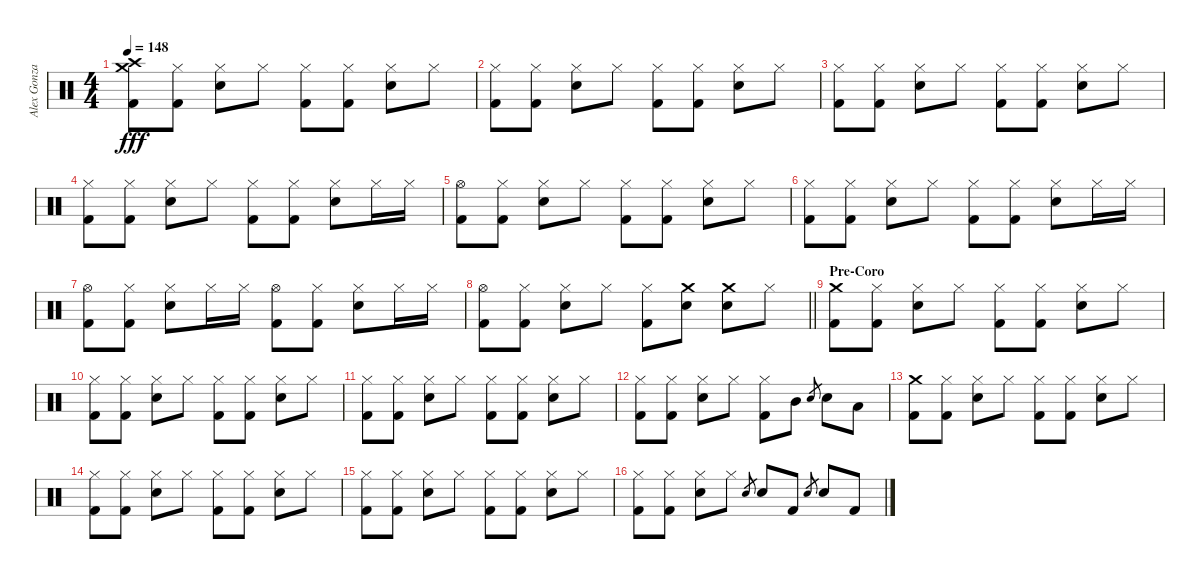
\track ("Alex Gonzalez" "Alex Gonza") {instrument percussion}
\staff {score}
\articulation defaults
\ts (4 4)
\tempo 148
\clef neutral
\ks c
("Crash medium (hit)" "Crash high (hit)" "Kick (hit) 2").8{dy fff} ("Hi-Hat (closed)" "Kick (hit) 2").8 ("Hi-Hat (closed)" "Snare (hit) 2").8 "Hi-Hat (closed)".8 ("Hi-Hat (closed)" "Kick (hit) 2").8 ("Hi-Hat (closed)" "Kick (hit) 2").8 ("Hi-Hat (closed)" "Snare (hit) 2").8 "Hi-Hat (closed)".8 |
("Hi-Hat (closed)" "Kick (hit) 2").8 ("Hi-Hat (closed)" "Kick (hit) 2").8 ("Hi-Hat (closed)" "Snare (hit) 2").8 "Hi-Hat (closed)".8 ("Hi-Hat (closed)" "Kick (hit) 2").8 ("Hi-Hat (closed)" "Kick (hit) 2").8 ("Hi-Hat (closed)" "Snare (hit) 2").8 "Hi-Hat (closed)".8 |
("Hi-Hat (closed)" "Kick (hit) 2").8 ("Hi-Hat (closed)" "Kick (hit) 2").8 ("Hi-Hat (closed)" "Snare (hit) 2").8 "Hi-Hat (closed)".8 ("Hi-Hat (closed)" "Kick (hit) 2").8 ("Hi-Hat (closed)" "Kick (hit) 2").8 ("Hi-Hat (closed)" "Snare (hit) 2").8 "Hi-Hat (closed)".8 |
("Hi-Hat (closed)" "Kick (hit) 2").8 ("Hi-Hat (closed)" "Kick (hit) 2").8 ("Hi-Hat (closed)" "Snare (hit) 2").8 "Hi-Hat (closed)".8 ("Hi-Hat (closed)" "Kick (hit) 2").8 ("Hi-Hat (closed)" "Kick (hit) 2").8 ("Hi-Hat (closed)" "Snare (hit) 2").8 "Hi-Hat (closed)".16 "Hi-Hat (closed)".16 |
("Hi-Hat (open)" "Kick (hit) 2").8 ("Hi-Hat (closed)" "Kick (hit) 2").8 ("Hi-Hat (closed)" "Snare (hit) 2").8 "Hi-Hat (closed)".8 ("Hi-Hat (closed)" "Kick (hit) 2").8 ("Hi-Hat (closed)" "Kick (hit) 2").8 ("Hi-Hat (closed)" "Snare (hit) 2").8 "Hi-Hat (closed)".8 |
("Hi-Hat (closed)" "Kick (hit) 2").8 ("Hi-Hat (closed)" "Kick (hit) 2").8 ("Hi-Hat (closed)" "Snare (hit) 2").8 "Hi-Hat (closed)".8 ("Hi-Hat (closed)" "Kick (hit) 2").8 ("Hi-Hat (closed)" "Kick (hit) 2").8 ("Hi-Hat (closed)" "Snare (hit) 2").8 "Hi-Hat (closed)".16 "Hi-Hat (closed)".16 |
("Hi-Hat (open)" "Kick (hit) 2").8 ("Hi-Hat (closed)" "Kick (hit) 2").8 ("Hi-Hat (closed)" "Snare (hit) 2").8 "Hi-Hat (closed)".16 "Hi-Hat (closed)".16 ("Hi-Hat (open)" "Kick (hit) 2").8 ("Hi-Hat (closed)" "Kick (hit) 2").8 ("Hi-Hat (closed)" "Snare (hit) 2").8 "Hi-Hat (closed)".16 "Hi-Hat (closed)".16 |
\barLineRight lightlight
("Hi-Hat (open)" "Kick (hit) 2").8 ("Hi-Hat (closed)" "Kick (hit) 2").8 ("Hi-Hat (closed)" "Snare (hit) 2").8 "Hi-Hat (closed)".8 ("Hi-Hat (closed)" "Kick (hit) 2").8 ("Crash medium (hit)" "Snare (hit) 2").8 ("Crash medium (hit)" "Snare (hit) 2").8 "Hi-Hat (closed)".8 |
\section ("" "Pre-Coro")
("Crash medium (hit)" "Kick (hit) 2").8 ("Hi-Hat (closed)" "Kick (hit) 2").8 ("Hi-Hat (closed)" "Snare (hit) 2").8 "Hi-Hat (closed)".8 ("Hi-Hat (closed)" "Kick (hit) 2").8 ("Hi-Hat (closed)" "Kick (hit) 2").8 ("Hi-Hat (closed)" "Snare (hit) 2").8 "Hi-Hat (closed)".8 |
("Hi-Hat (closed)" "Kick (hit) 2").8 ("Hi-Hat (closed)" "Kick (hit) 2").8 ("Hi-Hat (closed)" "Snare (hit) 2").8 "Hi-Hat (closed)".8 ("Hi-Hat (closed)" "Kick (hit) 2").8 ("Hi-Hat (closed)" "Kick (hit) 2").8 ("Hi-Hat (closed)" "Snare (hit) 2").8 "Hi-Hat (closed)".8 |
("Hi-Hat (closed)" "Kick (hit) 2").8 ("Hi-Hat (closed)" "Kick (hit) 2").8 ("Hi-Hat (closed)" "Snare (hit) 2").8 "Hi-Hat (closed)".8 ("Hi-Hat (closed)" "Kick (hit) 2").8 ("Hi-Hat (closed)" "Kick (hit) 2").8 ("Hi-Hat (closed)" "Snare (hit) 2").8 "Hi-Hat (closed)".8 |
("Hi-Hat (closed)" "Kick (hit) 2").8 ("Hi-Hat (closed)" "Kick (hit) 2").8 ("Hi-Hat (closed)" "Snare (hit) 2").8 "Hi-Hat (closed)".8 ("Hi-Hat (closed)" "Kick (hit) 2").8 "Mid Tom (hit)".8 "Snare (hit) 2".8{gr} "Snare (hit) 2".8 "Low Tom (hit)".8 |
("Crash medium (hit)" "Kick (hit) 2").8 ("Hi-Hat (closed)" "Kick (hit) 2").8 ("Hi-Hat (closed)" "Snare (hit) 2").8 "Hi-Hat (closed)".8 ("Hi-Hat (closed)" "Kick (hit) 2").8 ("Hi-Hat (closed)" "Kick (hit) 2").8 ("Hi-Hat (closed)" "Snare (hit) 2").8 "Hi-Hat (closed)".8 |
("Hi-Hat (closed)" "Kick (hit) 2").8 ("Hi-Hat (closed)" "Kick (hit) 2").8 ("Hi-Hat (closed)" "Snare (hit) 2").8 "Hi-Hat (closed)".8 ("Hi-Hat (closed)" "Kick (hit) 2").8 ("Hi-Hat (closed)" "Kick (hit) 2").8 ("Hi-Hat (closed)" "Snare (hit) 2").8 "Hi-Hat (closed)".8 |
("Hi-Hat (closed)" "Kick (hit) 2").8 ("Hi-Hat (closed)" "Kick (hit) 2").8 ("Hi-Hat (closed)" "Snare (hit) 2").8 "Hi-Hat (closed)".8 ("Hi-Hat (closed)" "Kick (hit) 2").8 ("Hi-Hat (closed)" "Kick (hit) 2").8 ("Hi-Hat (closed)" "Snare (hit) 2").8 "Hi-Hat (closed)".8 |
("Hi-Hat (closed)" "Kick (hit) 2").8 ("Hi-Hat (closed)" "Kick (hit) 2").8 ("Hi-Hat (closed)" "Snare (hit) 2").8 "Hi-Hat (closed)".8 "Snare (hit) 2".8{gr} "Snare (hit) 2".8 "Kick (hit) 2".8 "Snare (hit) 2".8{gr} "Snare (hit) 2".8 "Kick (hit) 2".8
